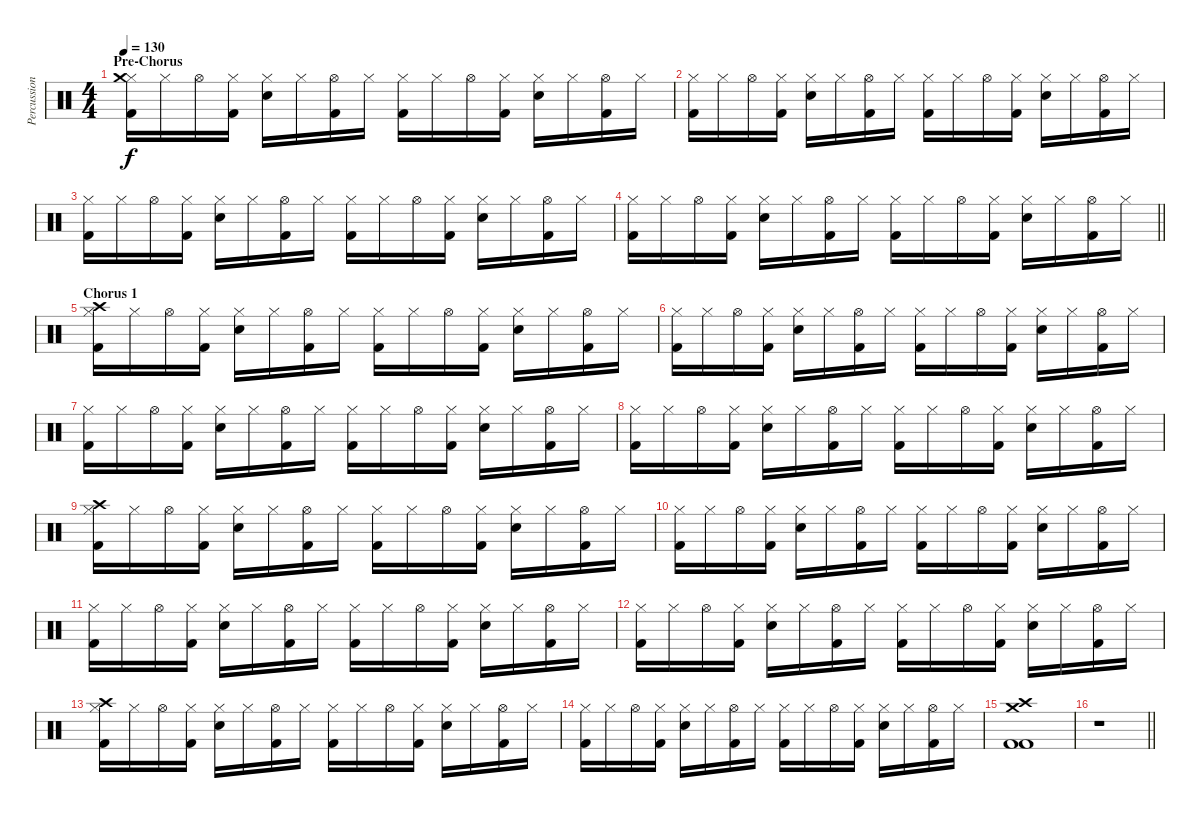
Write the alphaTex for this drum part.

\track ("Percussion" "Percussion") {instrument percussion}
\staff {score}
\articulation defaults
\ts (4 4)
\section ("" "Pre-Chorus")
\tempo 130
\clef neutral
\ks c
("Hi-Hat (closed)" "Crash medium (hit)" "Kick (hit) 2").16{dy f} "Hi-Hat (closed)".16 "Hi-Hat (open)".16 ("Hi-Hat (closed)" "Kick (hit) 2").16 ("Hi-Hat (closed)" "Snare (hit) 2").16 "Hi-Hat (closed)".16 ("Hi-Hat (open)" "Kick (hit) 2").16 "Hi-Hat (closed)".16 ("Hi-Hat (closed)" "Kick (hit) 2").16 "Hi-Hat (closed)".16 "Hi-Hat (open)".16 ("Hi-Hat (closed)" "Kick (hit) 2").16 ("Hi-Hat (closed)" "Snare (hit) 2").16 "Hi-Hat (closed)".16 ("Hi-Hat (open)" "Kick (hit) 2").16 "Hi-Hat (closed)".16 |
("Hi-Hat (closed)" "Kick (hit) 2").16 "Hi-Hat (closed)".16 "Hi-Hat (open)".16 ("Hi-Hat (closed)" "Kick (hit) 2").16 ("Hi-Hat (closed)" "Snare (hit) 2").16 "Hi-Hat (closed)".16 ("Hi-Hat (open)" "Kick (hit) 2").16 "Hi-Hat (closed)".16 ("Hi-Hat (closed)" "Kick (hit) 2").16 "Hi-Hat (closed)".16 "Hi-Hat (open)".16 ("Hi-Hat (closed)" "Kick (hit) 2").16 ("Hi-Hat (closed)" "Snare (hit) 2").16 "Hi-Hat (closed)".16 ("Hi-Hat (open)" "Kick (hit) 2").16 "Hi-Hat (closed)".16 |
("Hi-Hat (closed)" "Kick (hit) 2").16 "Hi-Hat (closed)".16 "Hi-Hat (open)".16 ("Hi-Hat (closed)" "Kick (hit) 2").16 ("Hi-Hat (closed)" "Snare (hit) 2").16 "Hi-Hat (closed)".16 ("Hi-Hat (open)" "Kick (hit) 2").16 "Hi-Hat (closed)".16 ("Hi-Hat (closed)" "Kick (hit) 2").16 "Hi-Hat (closed)".16 "Hi-Hat (open)".16 ("Hi-Hat (closed)" "Kick (hit) 2").16 ("Hi-Hat (closed)" "Snare (hit) 2").16 "Hi-Hat (closed)".16 ("Hi-Hat (open)" "Kick (hit) 2").16 "Hi-Hat (closed)".16 |
\barLineRight lightlight
("Hi-Hat (closed)" "Kick (hit) 2").16 "Hi-Hat (closed)".16 "Hi-Hat (open)".16 ("Hi-Hat (closed)" "Kick (hit) 2").16 ("Hi-Hat (closed)" "Snare (hit) 2").16 "Hi-Hat (closed)".16 ("Hi-Hat (open)" "Kick (hit) 2").16 "Hi-Hat (closed)".16 ("Hi-Hat (closed)" "Kick (hit) 2").16 "Hi-Hat (closed)".16 "Hi-Hat (open)".16 ("Hi-Hat (closed)" "Kick (hit) 2").16 ("Hi-Hat (closed)" "Snare (hit) 2").16 "Hi-Hat (closed)".16 ("Hi-Hat (open)" "Kick (hit) 2").16 "Hi-Hat (closed)".16 |
\section ("" "Chorus 1")
("Hi-Hat (closed)" "Crash high (hit)" "Kick (hit) 2").16 "Hi-Hat (closed)".16 "Hi-Hat (open)".16 ("Hi-Hat (closed)" "Kick (hit) 2").16 ("Hi-Hat (closed)" "Snare (hit) 2").16 "Hi-Hat (closed)".16 ("Hi-Hat (open)" "Kick (hit) 2").16 "Hi-Hat (closed)".16 ("Hi-Hat (closed)" "Kick (hit) 2").16 "Hi-Hat (closed)".16 "Hi-Hat (open)".16 ("Hi-Hat (closed)" "Kick (hit) 2").16 ("Hi-Hat (closed)" "Snare (hit) 2").16 "Hi-Hat (closed)".16 ("Hi-Hat (open)" "Kick (hit) 2").16 "Hi-Hat (closed)".16 |
("Hi-Hat (closed)" "Kick (hit) 2").16 "Hi-Hat (closed)".16 "Hi-Hat (open)".16 ("Hi-Hat (closed)" "Kick (hit) 2").16 ("Hi-Hat (closed)" "Snare (hit) 2").16 "Hi-Hat (closed)".16 ("Hi-Hat (open)" "Kick (hit) 2").16 "Hi-Hat (closed)".16 ("Hi-Hat (closed)" "Kick (hit) 2").16 "Hi-Hat (closed)".16 "Hi-Hat (open)".16 ("Hi-Hat (closed)" "Kick (hit) 2").16 ("Hi-Hat (closed)" "Snare (hit) 2").16 "Hi-Hat (closed)".16 ("Hi-Hat (open)" "Kick (hit) 2").16 "Hi-Hat (closed)".16 |
("Hi-Hat (closed)" "Kick (hit) 2").16 "Hi-Hat (closed)".16 "Hi-Hat (open)".16 ("Hi-Hat (closed)" "Kick (hit) 2").16 ("Hi-Hat (closed)" "Snare (hit) 2").16 "Hi-Hat (closed)".16 ("Hi-Hat (open)" "Kick (hit) 2").16 "Hi-Hat (closed)".16 ("Hi-Hat (closed)" "Kick (hit) 2").16 "Hi-Hat (closed)".16 "Hi-Hat (open)".16 ("Hi-Hat (closed)" "Kick (hit) 2").16 ("Hi-Hat (closed)" "Snare (hit) 2").16 "Hi-Hat (closed)".16 ("Hi-Hat (open)" "Kick (hit) 2").16 "Hi-Hat (closed)".16 |
("Hi-Hat (closed)" "Kick (hit) 2").16 "Hi-Hat (closed)".16 "Hi-Hat (open)".16 ("Hi-Hat (closed)" "Kick (hit) 2").16 ("Hi-Hat (closed)" "Snare (hit) 2").16 "Hi-Hat (closed)".16 ("Hi-Hat (open)" "Kick (hit) 2").16 "Hi-Hat (closed)".16 ("Hi-Hat (closed)" "Kick (hit) 2").16 "Hi-Hat (closed)".16 "Hi-Hat (open)".16 ("Hi-Hat (closed)" "Kick (hit) 2").16 ("Hi-Hat (closed)" "Snare (hit) 2").16 "Hi-Hat (closed)".16 ("Hi-Hat (open)" "Kick (hit) 2").16 "Hi-Hat (closed)".16 |
("Hi-Hat (closed)" "Crash high (hit)" "Kick (hit) 2").16 "Hi-Hat (closed)".16 "Hi-Hat (open)".16 ("Hi-Hat (closed)" "Kick (hit) 2").16 ("Hi-Hat (closed)" "Snare (hit) 2").16 "Hi-Hat (closed)".16 ("Hi-Hat (open)" "Kick (hit) 2").16 "Hi-Hat (closed)".16 ("Hi-Hat (closed)" "Kick (hit) 2").16 "Hi-Hat (closed)".16 "Hi-Hat (open)".16 ("Hi-Hat (closed)" "Kick (hit) 2").16 ("Hi-Hat (closed)" "Snare (hit) 2").16 "Hi-Hat (closed)".16 ("Hi-Hat (open)" "Kick (hit) 2").16 "Hi-Hat (closed)".16 |
("Hi-Hat (closed)" "Kick (hit) 2").16 "Hi-Hat (closed)".16 "Hi-Hat (open)".16 ("Hi-Hat (closed)" "Kick (hit) 2").16 ("Hi-Hat (closed)" "Snare (hit) 2").16 "Hi-Hat (closed)".16 ("Hi-Hat (open)" "Kick (hit) 2").16 "Hi-Hat (closed)".16 ("Hi-Hat (closed)" "Kick (hit) 2").16 "Hi-Hat (closed)".16 "Hi-Hat (open)".16 ("Hi-Hat (closed)" "Kick (hit) 2").16 ("Hi-Hat (closed)" "Snare (hit) 2").16 "Hi-Hat (closed)".16 ("Hi-Hat (open)" "Kick (hit) 2").16 "Hi-Hat (closed)".16 |
("Hi-Hat (closed)" "Kick (hit) 2").16 "Hi-Hat (closed)".16 "Hi-Hat (open)".16 ("Hi-Hat (closed)" "Kick (hit) 2").16 ("Hi-Hat (closed)" "Snare (hit) 2").16 "Hi-Hat (closed)".16 ("Hi-Hat (open)" "Kick (hit) 2").16 "Hi-Hat (closed)".16 ("Hi-Hat (closed)" "Kick (hit) 2").16 "Hi-Hat (closed)".16 "Hi-Hat (open)".16 ("Hi-Hat (closed)" "Kick (hit) 2").16 ("Hi-Hat (closed)" "Snare (hit) 2").16 "Hi-Hat (closed)".16 ("Hi-Hat (open)" "Kick (hit) 2").16 "Hi-Hat (closed)".16 |
("Hi-Hat (closed)" "Kick (hit) 2").16 "Hi-Hat (closed)".16 "Hi-Hat (open)".16 ("Hi-Hat (closed)" "Kick (hit) 2").16 ("Hi-Hat (closed)" "Snare (hit) 2").16 "Hi-Hat (closed)".16 ("Hi-Hat (open)" "Kick (hit) 2").16 "Hi-Hat (closed)".16 ("Hi-Hat (closed)" "Kick (hit) 2").16 "Hi-Hat (closed)".16 "Hi-Hat (open)".16 ("Hi-Hat (closed)" "Kick (hit) 2").16 ("Hi-Hat (closed)" "Snare (hit) 2").16 "Hi-Hat (closed)".16 ("Hi-Hat (open)" "Kick (hit) 2").16 "Hi-Hat (closed)".16 |
("Hi-Hat (closed)" "Crash high (hit)" "Kick (hit) 2").16 "Hi-Hat (closed)".16 "Hi-Hat (open)".16 ("Hi-Hat (closed)" "Kick (hit) 2").16 ("Hi-Hat (closed)" "Snare (hit) 2").16 "Hi-Hat (closed)".16 ("Hi-Hat (open)" "Kick (hit) 2").16 "Hi-Hat (closed)".16 ("Hi-Hat (closed)" "Kick (hit) 2").16 "Hi-Hat (closed)".16 "Hi-Hat (open)".16 ("Hi-Hat (closed)" "Kick (hit) 2").16 ("Hi-Hat (closed)" "Snare (hit) 2").16 "Hi-Hat (closed)".16 ("Hi-Hat (open)" "Kick (hit) 2").16 "Hi-Hat (closed)".16 |
("Hi-Hat (closed)" "Kick (hit) 2").16 "Hi-Hat (closed)".16 "Hi-Hat (open)".16 ("Hi-Hat (closed)" "Kick (hit) 2").16 ("Hi-Hat (closed)" "Snare (hit) 2").16 "Hi-Hat (closed)".16 ("Hi-Hat (open)" "Kick (hit) 2").16 "Hi-Hat (closed)".16 ("Hi-Hat (closed)" "Kick (hit) 2").16 "Hi-Hat (closed)".16 "Hi-Hat (open)".16 ("Hi-Hat (closed)" "Kick (hit) 2").16 ("Hi-Hat (closed)" "Snare (hit) 2").16 "Hi-Hat (closed)".16 ("Hi-Hat (open)" "Kick (hit) 2").16 "Hi-Hat (closed)".16 |
("Crash high (hit)" "Crash medium (hit)" "Kick (hit) 2" "Kick (hit) 2").1 |
\barLineRight lightlight
r.1
